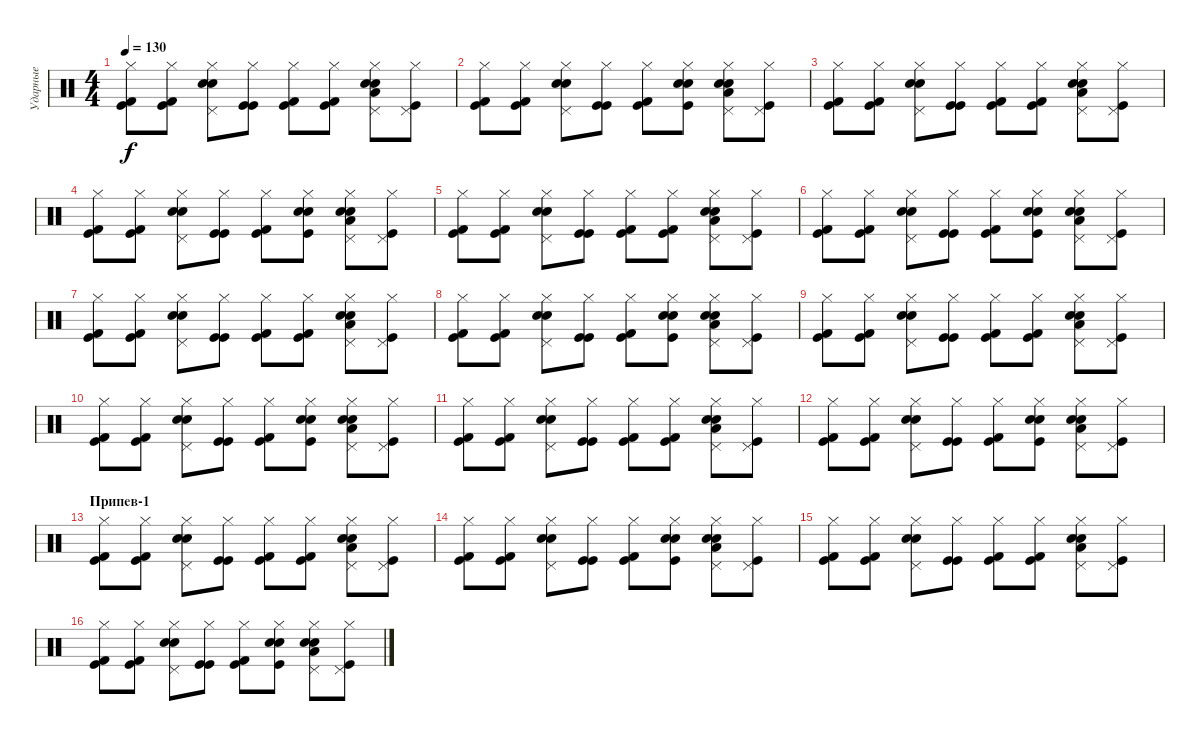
\track ("Ударные" "Ударные") {instrument percussion}
\staff {score}
\articulation defaults
\ts (4 4)
\tempo 130
\clef neutral
\ks c
("Kick (hit)" "Kick (hit) 2" "Hi-Hat (closed)").8{dy f} ("Kick (hit)" "Kick (hit) 2" "Hi-Hat (closed)").8 ("Electric Snare (hit)" "Pedal Hi-Hat (hit)" "Hi-Hat (closed)" "Snare (hit) 2").8 ("Kick (hit)" "Kick (hit)" "Hi-Hat (closed)").8 ("Kick (hit)" "Kick (hit) 2" "Hi-Hat (closed)").8 ("Kick (hit)" "Kick (hit) 2" "Hi-Hat (closed)").8 ("Low Tom (hit)" "Electric Snare (hit)" "Pedal Hi-Hat (hit)" "Hi-Hat (closed)" "Snare (hit) 2").8 ("Pedal Hi-Hat (hit)" "Kick (hit)" "Hi-Hat (closed)").8 |
("Kick (hit)" "Kick (hit) 2" "Hi-Hat (closed)").8 ("Kick (hit)" "Kick (hit) 2" "Hi-Hat (closed)").8 ("Snare (hit) 2" "Electric Snare (hit)" "Pedal Hi-Hat (hit)" "Hi-Hat (closed)").8 ("Kick (hit)" "Kick (hit)" "Hi-Hat (closed)").8 ("Kick (hit)" "Kick (hit) 2" "Hi-Hat (closed)").8 ("Kick (hit)" "Electric Snare (hit)" "Hi-Hat (closed)" "Snare (hit) 2").8 ("Low Tom (hit)" "Electric Snare (hit)" "Pedal Hi-Hat (hit)" "Hi-Hat (closed)" "Snare (hit) 2").8 ("Pedal Hi-Hat (hit)" "Kick (hit)" "Hi-Hat (closed)").8 |
("Kick (hit)" "Kick (hit) 2" "Hi-Hat (closed)").8 ("Kick (hit)" "Kick (hit) 2" "Hi-Hat (closed)").8 ("Electric Snare (hit)" "Pedal Hi-Hat (hit)" "Hi-Hat (closed)" "Snare (hit) 2").8 ("Kick (hit)" "Kick (hit)" "Hi-Hat (closed)").8 ("Kick (hit)" "Kick (hit) 2" "Hi-Hat (closed)").8 ("Kick (hit)" "Kick (hit) 2" "Hi-Hat (closed)").8 ("Low Tom (hit)" "Electric Snare (hit)" "Pedal Hi-Hat (hit)" "Hi-Hat (closed)" "Snare (hit) 2").8 ("Pedal Hi-Hat (hit)" "Kick (hit)" "Hi-Hat (closed)").8 |
("Kick (hit)" "Kick (hit) 2" "Hi-Hat (closed)").8 ("Kick (hit)" "Kick (hit) 2" "Hi-Hat (closed)").8 ("Snare (hit) 2" "Electric Snare (hit)" "Pedal Hi-Hat (hit)" "Hi-Hat (closed)").8 ("Kick (hit)" "Kick (hit)" "Hi-Hat (closed)").8 ("Kick (hit)" "Kick (hit) 2" "Hi-Hat (closed)").8 ("Kick (hit)" "Electric Snare (hit)" "Hi-Hat (closed)" "Snare (hit) 2").8 ("Low Tom (hit)" "Electric Snare (hit)" "Pedal Hi-Hat (hit)" "Hi-Hat (closed)" "Snare (hit) 2").8 ("Pedal Hi-Hat (hit)" "Kick (hit)" "Hi-Hat (closed)").8 |
("Kick (hit)" "Kick (hit) 2" "Hi-Hat (closed)").8 ("Kick (hit)" "Kick (hit) 2" "Hi-Hat (closed)").8 ("Electric Snare (hit)" "Pedal Hi-Hat (hit)" "Hi-Hat (closed)" "Snare (hit) 2").8 ("Kick (hit)" "Kick (hit)" "Hi-Hat (closed)").8 ("Kick (hit)" "Kick (hit) 2" "Hi-Hat (closed)").8 ("Kick (hit)" "Kick (hit) 2" "Hi-Hat (closed)").8 ("Low Tom (hit)" "Electric Snare (hit)" "Pedal Hi-Hat (hit)" "Hi-Hat (closed)" "Snare (hit) 2").8 ("Pedal Hi-Hat (hit)" "Kick (hit)" "Hi-Hat (closed)").8 |
("Kick (hit)" "Kick (hit) 2" "Hi-Hat (closed)").8 ("Kick (hit)" "Kick (hit) 2" "Hi-Hat (closed)").8 ("Snare (hit) 2" "Electric Snare (hit)" "Pedal Hi-Hat (hit)" "Hi-Hat (closed)").8 ("Kick (hit)" "Kick (hit)" "Hi-Hat (closed)").8 ("Kick (hit)" "Kick (hit) 2" "Hi-Hat (closed)").8 ("Kick (hit)" "Electric Snare (hit)" "Hi-Hat (closed)" "Snare (hit) 2").8 ("Low Tom (hit)" "Electric Snare (hit)" "Pedal Hi-Hat (hit)" "Hi-Hat (closed)" "Snare (hit) 2").8 ("Pedal Hi-Hat (hit)" "Kick (hit)" "Hi-Hat (closed)").8 |
("Kick (hit)" "Kick (hit) 2" "Hi-Hat (closed)").8 ("Kick (hit)" "Kick (hit) 2" "Hi-Hat (closed)").8 ("Electric Snare (hit)" "Pedal Hi-Hat (hit)" "Hi-Hat (closed)" "Snare (hit) 2").8 ("Kick (hit)" "Kick (hit)" "Hi-Hat (closed)").8 ("Kick (hit)" "Kick (hit) 2" "Hi-Hat (closed)").8 ("Kick (hit)" "Kick (hit) 2" "Hi-Hat (closed)").8 ("Low Tom (hit)" "Electric Snare (hit)" "Pedal Hi-Hat (hit)" "Hi-Hat (closed)" "Snare (hit) 2").8 ("Pedal Hi-Hat (hit)" "Kick (hit)" "Hi-Hat (closed)").8 |
("Kick (hit)" "Kick (hit) 2" "Hi-Hat (closed)").8 ("Kick (hit)" "Kick (hit) 2" "Hi-Hat (closed)").8 ("Snare (hit) 2" "Electric Snare (hit)" "Pedal Hi-Hat (hit)" "Hi-Hat (closed)").8 ("Kick (hit)" "Kick (hit)" "Hi-Hat (closed)").8 ("Kick (hit)" "Kick (hit) 2" "Hi-Hat (closed)").8 ("Kick (hit)" "Electric Snare (hit)" "Hi-Hat (closed)" "Snare (hit) 2").8 ("Low Tom (hit)" "Electric Snare (hit)" "Pedal Hi-Hat (hit)" "Hi-Hat (closed)" "Snare (hit) 2").8 ("Pedal Hi-Hat (hit)" "Kick (hit)" "Hi-Hat (closed)").8 |
("Kick (hit)" "Kick (hit) 2" "Hi-Hat (closed)").8 ("Kick (hit)" "Kick (hit) 2" "Hi-Hat (closed)").8 ("Electric Snare (hit)" "Pedal Hi-Hat (hit)" "Hi-Hat (closed)" "Snare (hit) 2").8 ("Kick (hit)" "Kick (hit)" "Hi-Hat (closed)").8 ("Kick (hit)" "Kick (hit) 2" "Hi-Hat (closed)").8 ("Kick (hit)" "Kick (hit) 2" "Hi-Hat (closed)").8 ("Low Tom (hit)" "Electric Snare (hit)" "Pedal Hi-Hat (hit)" "Hi-Hat (closed)" "Snare (hit) 2").8 ("Pedal Hi-Hat (hit)" "Kick (hit)" "Hi-Hat (closed)").8 |
("Kick (hit)" "Kick (hit) 2" "Hi-Hat (closed)").8 ("Kick (hit)" "Kick (hit) 2" "Hi-Hat (closed)").8 ("Snare (hit) 2" "Electric Snare (hit)" "Pedal Hi-Hat (hit)" "Hi-Hat (closed)").8 ("Kick (hit)" "Kick (hit)" "Hi-Hat (closed)").8 ("Kick (hit)" "Kick (hit) 2" "Hi-Hat (closed)").8 ("Kick (hit)" "Electric Snare (hit)" "Hi-Hat (closed)" "Snare (hit) 2").8 ("Low Tom (hit)" "Electric Snare (hit)" "Pedal Hi-Hat (hit)" "Hi-Hat (closed)" "Snare (hit) 2").8 ("Pedal Hi-Hat (hit)" "Kick (hit)" "Hi-Hat (closed)").8 |
("Kick (hit)" "Kick (hit) 2" "Hi-Hat (closed)").8 ("Kick (hit)" "Kick (hit) 2" "Hi-Hat (closed)").8 ("Electric Snare (hit)" "Pedal Hi-Hat (hit)" "Hi-Hat (closed)" "Snare (hit) 2").8 ("Kick (hit)" "Kick (hit)" "Hi-Hat (closed)").8 ("Kick (hit)" "Kick (hit) 2" "Hi-Hat (closed)").8 ("Kick (hit)" "Kick (hit) 2" "Hi-Hat (closed)").8 ("Low Tom (hit)" "Electric Snare (hit)" "Pedal Hi-Hat (hit)" "Hi-Hat (closed)" "Snare (hit) 2").8 ("Pedal Hi-Hat (hit)" "Kick (hit)" "Hi-Hat (closed)").8 |
("Kick (hit)" "Kick (hit) 2" "Hi-Hat (closed)").8 ("Kick (hit)" "Kick (hit) 2" "Hi-Hat (closed)").8 ("Snare (hit) 2" "Electric Snare (hit)" "Pedal Hi-Hat (hit)" "Hi-Hat (closed)").8 ("Kick (hit)" "Kick (hit)" "Hi-Hat (closed)").8 ("Kick (hit)" "Kick (hit) 2" "Hi-Hat (closed)").8 ("Kick (hit)" "Electric Snare (hit)" "Hi-Hat (closed)" "Snare (hit) 2").8 ("Low Tom (hit)" "Electric Snare (hit)" "Pedal Hi-Hat (hit)" "Hi-Hat (closed)" "Snare (hit) 2").8 ("Pedal Hi-Hat (hit)" "Kick (hit)" "Hi-Hat (closed)").8 |
\section ("" "Припев-1")
("Kick (hit)" "Kick (hit) 2" "Hi-Hat (closed)").8 ("Kick (hit)" "Kick (hit) 2" "Hi-Hat (closed)").8 ("Electric Snare (hit)" "Pedal Hi-Hat (hit)" "Hi-Hat (closed)" "Snare (hit) 2").8 ("Kick (hit)" "Kick (hit)" "Hi-Hat (closed)").8 ("Kick (hit)" "Kick (hit) 2" "Hi-Hat (closed)").8 ("Kick (hit)" "Kick (hit) 2" "Hi-Hat (closed)").8 ("Low Tom (hit)" "Electric Snare (hit)" "Pedal Hi-Hat (hit)" "Hi-Hat (closed)" "Snare (hit) 2").8 ("Pedal Hi-Hat (hit)" "Kick (hit)" "Hi-Hat (closed)").8 |
("Kick (hit)" "Kick (hit) 2" "Hi-Hat (closed)").8 ("Kick (hit)" "Kick (hit) 2" "Hi-Hat (closed)").8 ("Snare (hit) 2" "Electric Snare (hit)" "Pedal Hi-Hat (hit)" "Hi-Hat (closed)").8 ("Kick (hit)" "Kick (hit)" "Hi-Hat (closed)").8 ("Kick (hit)" "Kick (hit) 2" "Hi-Hat (closed)").8 ("Kick (hit)" "Electric Snare (hit)" "Hi-Hat (closed)" "Snare (hit) 2").8 ("Low Tom (hit)" "Electric Snare (hit)" "Pedal Hi-Hat (hit)" "Hi-Hat (closed)" "Snare (hit) 2").8 ("Pedal Hi-Hat (hit)" "Kick (hit)" "Hi-Hat (closed)").8 |
("Kick (hit)" "Kick (hit) 2" "Hi-Hat (closed)").8 ("Kick (hit)" "Kick (hit) 2" "Hi-Hat (closed)").8 ("Electric Snare (hit)" "Pedal Hi-Hat (hit)" "Hi-Hat (closed)" "Snare (hit) 2").8 ("Kick (hit)" "Kick (hit)" "Hi-Hat (closed)").8 ("Kick (hit)" "Kick (hit) 2" "Hi-Hat (closed)").8 ("Kick (hit)" "Kick (hit) 2" "Hi-Hat (closed)").8 ("Low Tom (hit)" "Electric Snare (hit)" "Pedal Hi-Hat (hit)" "Hi-Hat (closed)" "Snare (hit) 2").8 ("Pedal Hi-Hat (hit)" "Kick (hit)" "Hi-Hat (closed)").8 |
("Kick (hit)" "Kick (hit) 2" "Hi-Hat (closed)").8 ("Kick (hit)" "Kick (hit) 2" "Hi-Hat (closed)").8 ("Snare (hit) 2" "Electric Snare (hit)" "Pedal Hi-Hat (hit)" "Hi-Hat (closed)").8 ("Kick (hit)" "Kick (hit)" "Hi-Hat (closed)").8 ("Kick (hit)" "Kick (hit) 2" "Hi-Hat (closed)").8 ("Kick (hit)" "Electric Snare (hit)" "Hi-Hat (closed)" "Snare (hit) 2").8 ("Low Tom (hit)" "Electric Snare (hit)" "Pedal Hi-Hat (hit)" "Hi-Hat (closed)" "Snare (hit) 2").8 ("Pedal Hi-Hat (hit)" "Kick (hit)" "Hi-Hat (closed)").8
